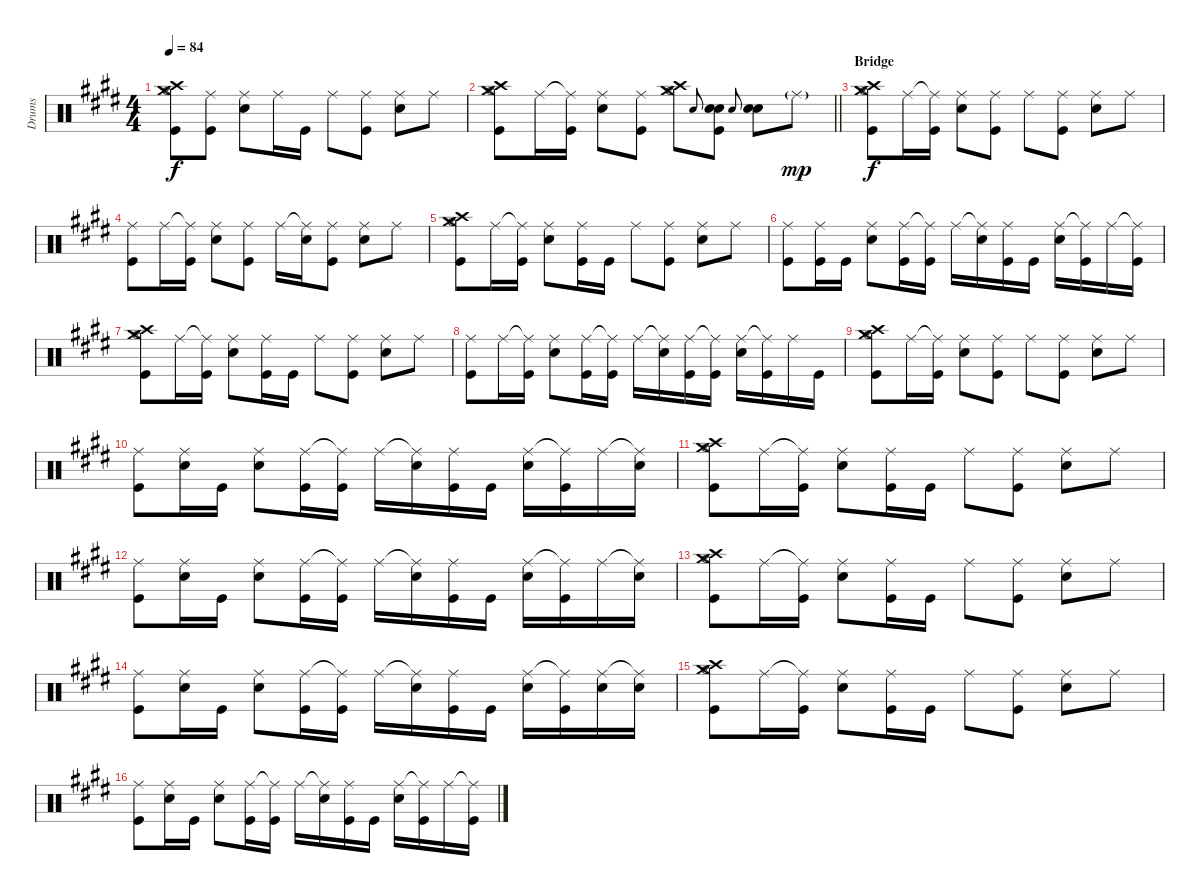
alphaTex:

\track ("Drums" "Drums") {instrument percussion}
\staff {score}
\articulation defaults
\ts (4 4)
\tempo 84
\clef neutral
\ks e
("Crash high (hit)" "Crash medium (hit)" "Hi-Hat (open)" "Kick (hit)").8{dy f} ("Ride (middle)" "Kick (hit)").8 ("Ride (middle)" "Snare (hit) 2").8 "Ride (middle)".16 "Kick (hit)".16 "Ride (middle)".8 ("Ride (middle)" "Kick (hit)").8 ("Ride (middle)" "Snare (hit) 2").8 "Ride (middle)".8 |
\barLineRight lightlight
("Crash high (hit)" "Crash medium (hit)" "Hi-Hat (open)" "Kick (hit)").8 "Ride (middle)".16 ("Ride (middle)"{t} "Kick (hit)").16 ("Ride (middle)" "Snare (hit) 2").8 ("Ride (middle)" "Kick (hit)").8 ("Crash high (hit)" "Crash medium (hit)" "Hi-Hat (open)").8 "Snare (hit) 2".8{gr onbeat} ("Snare (hit)" "Kick (hit)" "Snare (hit) 2").8 "Snare (hit) 2".8{gr onbeat} ("Snare (hit)" "Snare (hit) 2").8 "Ride (middle)"{g}.8{dy mp} |
\section ("" "Bridge")
("Crash high (hit)" "Crash medium (hit)" "Hi-Hat (open)" "Kick (hit)").8{dy f} "Ride (middle)".16 ("Ride (middle)"{t} "Kick (hit)").16 ("Ride (middle)" "Snare (hit) 2").8 ("Ride (middle)" "Kick (hit)").8 "Ride (middle)".8 ("Ride (middle)" "Kick (hit)").8 ("Ride (middle)" "Snare (hit) 2").8 "Ride (middle)".8 |
("Ride (middle)" "Kick (hit)").8 "Ride (middle)".16 ("Ride (middle)"{t} "Kick (hit)").16 ("Ride (middle)" "Snare (hit) 2").8 ("Ride (middle)" "Kick (hit)").8 "Ride (middle)".16 ("Ride (middle)"{t} "Snare (hit) 2").16 ("Ride (middle)" "Kick (hit)").8 ("Ride (middle)" "Snare (hit) 2").8 "Ride (middle)".8 |
("Crash high (hit)" "Crash medium (hit)" "Hi-Hat (open)" "Kick (hit)").8 "Ride (middle)".16 ("Ride (middle)"{t} "Kick (hit)").16 ("Ride (middle)" "Snare (hit) 2").8 ("Ride (middle)" "Kick (hit)").16 "Kick (hit)".16 "Ride (middle)".8 ("Ride (middle)" "Kick (hit)").8 ("Ride (middle)" "Snare (hit) 2").8 "Ride (middle)".8 |
("Ride (middle)" "Kick (hit)").8 ("Ride (middle)" "Kick (hit)").16 "Kick (hit)".16 ("Ride (middle)" "Snare (hit) 2").8 ("Ride (middle)" "Kick (hit)").16 ("Ride (middle)"{t} "Kick (hit)").16 "Ride (middle)".16 ("Ride (middle)"{t} "Snare (hit) 2").16 ("Ride (middle)" "Kick (hit)").16 "Kick (hit)".16 ("Ride (middle)" "Snare (hit) 2").16 ("Ride (middle)"{t} "Kick (hit)").16 "Ride (middle)".16 ("Ride (middle)"{t} "Kick (hit)").16 |
("Crash high (hit)" "Crash medium (hit)" "Hi-Hat (open)" "Kick (hit)").8 "Ride (middle)".16 ("Ride (middle)"{t} "Kick (hit)").16 ("Ride (middle)" "Snare (hit) 2").8 ("Ride (middle)" "Kick (hit)").16 "Kick (hit)".16 "Ride (middle)".8 ("Ride (middle)" "Kick (hit)").8 ("Ride (middle)" "Snare (hit) 2").8 "Ride (middle)".8 |
("Ride (middle)" "Kick (hit)").8 "Ride (middle)".16 ("Ride (middle)"{t} "Kick (hit)").16 ("Ride (middle)" "Snare (hit) 2").8 ("Ride (middle)" "Kick (hit)").16 ("Ride (middle)"{t} "Kick (hit)").16 "Ride (middle)".16 ("Ride (middle)"{t} "Snare (hit) 2").16 ("Ride (middle)" "Kick (hit)").16 ("Ride (middle)"{t} "Kick (hit)").16 ("Ride (middle)" "Snare (hit) 2").16 ("Ride (middle)"{t} "Kick (hit)").16 "Ride (middle)".16 "Kick (hit)".16 |
("Crash high (hit)" "Crash medium (hit)" "Hi-Hat (open)" "Kick (hit)").8 "Ride (middle)".16 ("Ride (middle)"{t} "Kick (hit)").16 ("Ride (middle)" "Snare (hit) 2").8 ("Ride (middle)" "Kick (hit)").8 "Ride (middle)".8 ("Ride (middle)" "Kick (hit)").8 ("Ride (middle)" "Snare (hit) 2").8 "Ride (middle)".8 |
("Ride (middle)" "Kick (hit)").8 ("Ride (middle)" "Snare (hit)").16 "Kick (hit)".16 ("Ride (middle)" "Snare (hit) 2").8 ("Ride (middle)" "Kick (hit)").16 ("Ride (middle)"{t} "Kick (hit)").16 "Ride (middle)".16 ("Ride (middle)"{t} "Snare (hit) 2").16 ("Ride (middle)" "Kick (hit)").16 "Kick (hit)".16 ("Ride (middle)" "Snare (hit) 2").16 ("Ride (middle)"{t} "Kick (hit)").16 "Ride (middle)".16 ("Ride (middle)"{t} "Snare (hit) 2").16 |
("Crash high (hit)" "Crash medium (hit)" "Hi-Hat (open)" "Kick (hit)").8 "Ride (middle)".16 ("Ride (middle)"{t} "Kick (hit)").16 ("Ride (middle)" "Snare (hit) 2").8 ("Ride (middle)" "Kick (hit)").16 "Kick (hit)".16 "Ride (middle)".8 ("Ride (middle)" "Kick (hit)").8 ("Ride (middle)" "Snare (hit) 2").8 "Ride (middle)".8 |
("Ride (middle)" "Kick (hit)").8 ("Ride (middle)" "Snare (hit)").16 "Kick (hit)".16 ("Ride (middle)" "Snare (hit) 2").8 ("Ride (middle)" "Kick (hit)").16 ("Ride (middle)"{t} "Kick (hit)").16 "Ride (middle)".16 ("Ride (middle)"{t} "Snare (hit) 2").16 ("Ride (middle)" "Kick (hit)").16 "Kick (hit)".16 ("Ride (middle)" "Snare (hit) 2").16 ("Ride (middle)"{t} "Kick (hit)").16 "Ride (middle)".16 ("Ride (middle)"{t} "Snare (hit) 2").16 |
("Crash high (hit)" "Crash medium (hit)" "Hi-Hat (open)" "Kick (hit)").8 "Ride (middle)".16 ("Ride (middle)"{t} "Kick (hit)").16 ("Ride (middle)" "Snare (hit) 2").8 ("Ride (middle)" "Kick (hit)").16 "Kick (hit)".16 "Ride (middle)".8 ("Ride (middle)" "Kick (hit)").8 ("Ride (middle)" "Snare (hit) 2").8 "Ride (middle)".8 |
("Ride (middle)" "Kick (hit)").8 ("Ride (middle)" "Snare (hit)").16 "Kick (hit)".16 ("Ride (middle)" "Snare (hit) 2").8 ("Ride (middle)" "Kick (hit)").16 ("Ride (middle)"{t} "Kick (hit)").16 "Ride (middle)".16 ("Ride (middle)"{t} "Snare (hit) 2").16 ("Ride (middle)" "Kick (hit)").16 "Kick (hit)".16 ("Ride (middle)" "Snare (hit) 2").16 ("Ride (middle)"{t} "Kick (hit)").16 ("Ride (middle)" "Snare (hit) 2").16 ("Ride (middle)"{t} "Snare (hit) 2").16 |
("Crash high (hit)" "Crash medium (hit)" "Hi-Hat (open)" "Kick (hit)").8 "Ride (middle)".16 ("Ride (middle)"{t} "Kick (hit)").16 ("Ride (middle)" "Snare (hit) 2").8 ("Ride (middle)" "Kick (hit)").16 "Kick (hit)".16 "Ride (middle)".8 ("Ride (middle)" "Kick (hit)").8 ("Ride (middle)" "Snare (hit) 2").8 "Ride (middle)".8 |
("Ride (middle)" "Kick (hit)").8 ("Ride (middle)" "Snare (hit)").16 "Kick (hit)".16 ("Ride (middle)" "Snare (hit) 2").8 ("Ride (middle)" "Kick (hit)").16 ("Ride (middle)"{t} "Kick (hit)").16 "Ride (middle)".16 ("Ride (middle)"{t} "Snare (hit) 2").16 ("Ride (middle)" "Kick (hit)").16 "Kick (hit)".16 ("Ride (middle)" "Snare (hit) 2").16 ("Ride (middle)"{t} "Kick (hit)").16 "Ride (middle)".16 ("Ride (middle)"{t} "Kick (hit)").16
